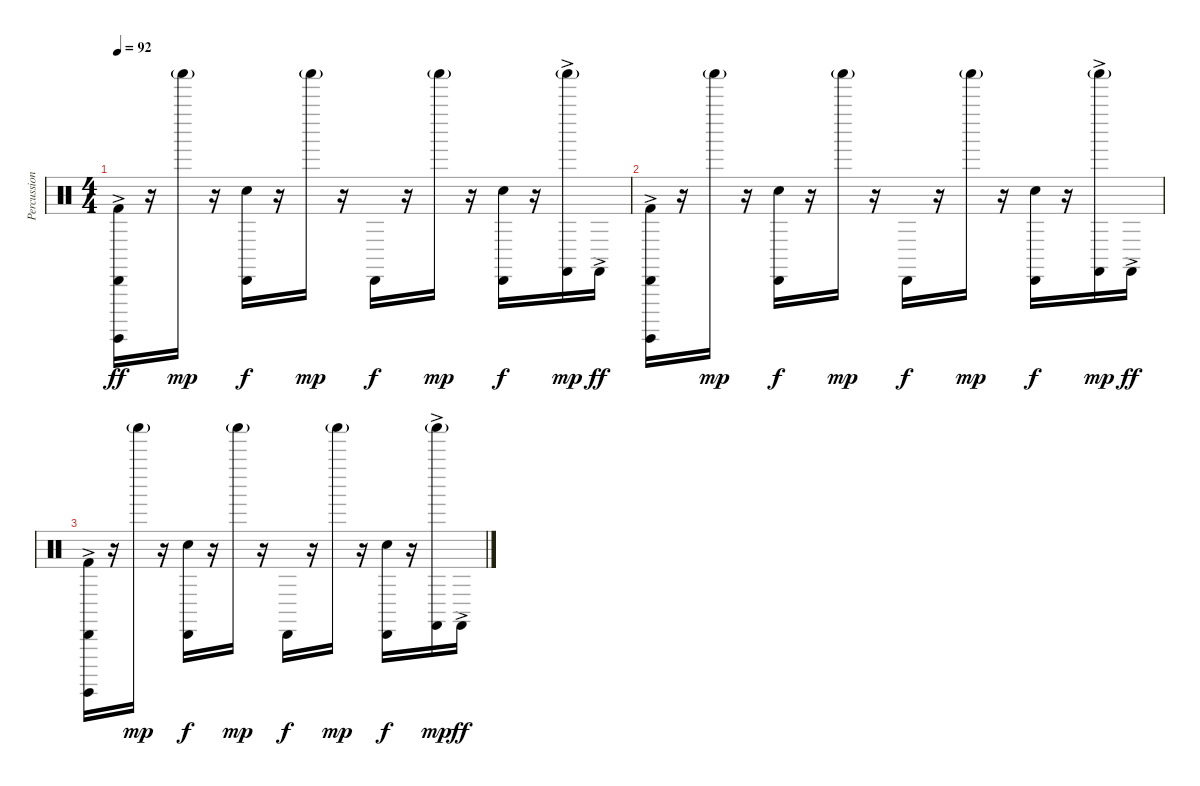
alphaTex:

\track ("Percussion" "Percussion") {instrument percussion}
\staff {score}
\articulation defaults
\ts (4 4)
\tempo 92
\clef neutral
\ks c
("Kick (hit) 2" "Surdo (hit)"{ac} "Cabasa (hit)").16{dy ff} r.16 "Shaker (hit)"{g}.16{dy mp} r.16 ("Snare (hit) 2" "Cabasa (hit)").16{dy f} r.16 "Shaker (hit)"{g}.16{dy mp} r.16 "Cabasa (hit)".16{dy f} r.16 "Shaker (hit)"{g}.16{dy mp} r.16 ("Snare (hit) 2" "Cabasa (hit)").16{dy f} r.16 ("Castanets (hit)"{ac} "Shaker (hit)"{g}).16{dy mp} "Castanets (hit)"{ac}.16{dy ff} |
("Kick (hit) 2" "Surdo (hit)"{ac} "Cabasa (hit)").16 r.16 "Shaker (hit)"{g}.16{dy mp} r.16 ("Snare (hit) 2" "Cabasa (hit)").16{dy f} r.16 "Shaker (hit)"{g}.16{dy mp} r.16 "Cabasa (hit)".16{dy f} r.16 "Shaker (hit)"{g}.16{dy mp} r.16 ("Snare (hit) 2" "Cabasa (hit)").16{dy f} r.16 ("Castanets (hit)"{ac} "Shaker (hit)"{g}).16{dy mp} "Castanets (hit)"{ac}.16{dy ff} |
("Kick (hit) 2" "Surdo (hit)"{ac} "Cabasa (hit)").16 r.16 "Shaker (hit)"{g}.16{dy mp} r.16 ("Snare (hit) 2" "Cabasa (hit)").16{dy f} r.16 "Shaker (hit)"{g}.16{dy mp} r.16 "Cabasa (hit)".16{dy f} r.16 "Shaker (hit)"{g}.16{dy mp} r.16 ("Snare (hit) 2" "Cabasa (hit)").16{dy f} r.16 ("Castanets (hit)"{ac} "Shaker (hit)"{g}).16{dy mp} "Castanets (hit)"{ac}.16{dy ff}
